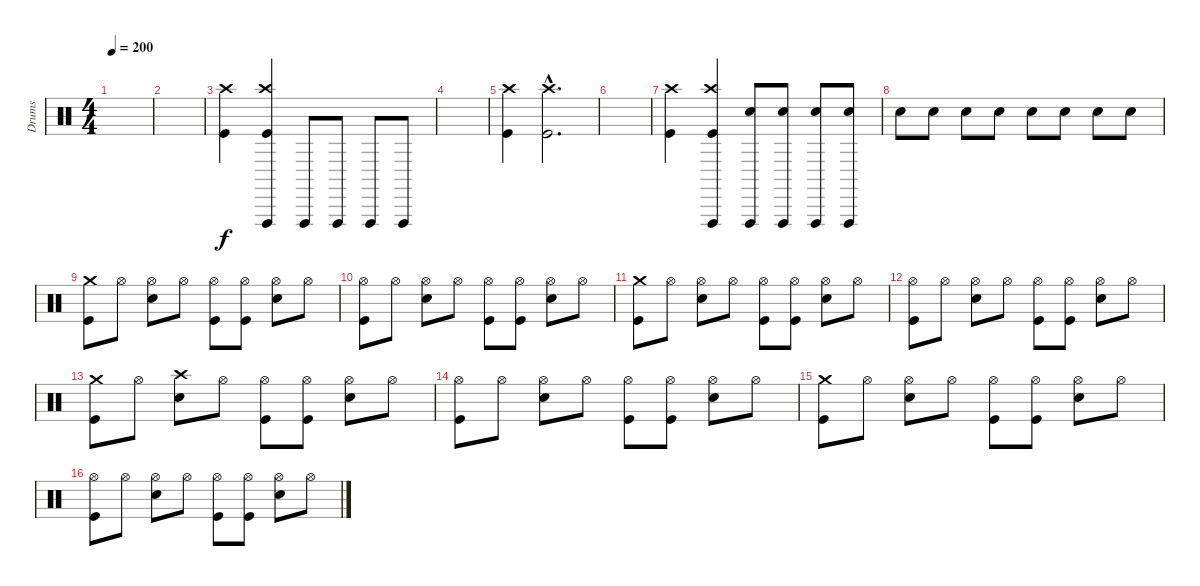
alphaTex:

\track ("Drums" "Drums") {instrument percussion}
\staff {score}
\articulation defaults
\ts (4 4)
\tempo 200
\clef neutral
\ks c
|
|
("Crash high (hit)" "Kick (hit)").4 ("Crash high (hit)" "Vibraslap (hit)" "Kick (hit)").4 "Vibraslap (hit)".8 "Vibraslap (hit)".8 "Vibraslap (hit)".8 "Vibraslap (hit)".8 |
|
("Crash high (hit)" "Kick (hit)").4 ("Crash high (hit)"{hac} "Kick (hit)"{hac}).2{d} |
|
("Crash high (hit)" "Kick (hit)").4 ("Crash high (hit)" "Vibraslap (hit)" "Kick (hit)").4 ("Vibraslap (hit)" "Snare (hit) 2").8 ("Vibraslap (hit)" "Snare (hit) 2").8 ("Vibraslap (hit)" "Snare (hit) 2").8 ("Vibraslap (hit)" "Snare (hit) 2").8 |
"Snare (hit) 2".8 "Snare (hit) 2".8 "Snare (hit) 2".8 "Snare (hit) 2".8 "Snare (hit) 2".8 "Snare (hit) 2".8 "Snare (hit) 2".8 "Snare (hit) 2".8 |
("Crash medium (hit)" "Kick (hit)").8 "Hi-Hat (open)".8 ("Hi-Hat (open)" "Snare (hit) 2").8 "Hi-Hat (open)".8 ("Hi-Hat (open)" "Kick (hit)").8 ("Hi-Hat (open)" "Kick (hit)").8 ("Hi-Hat (open)" "Snare (hit) 2").8 "Hi-Hat (open)".8 |
("Hi-Hat (open)" "Kick (hit)").8 "Hi-Hat (open)".8 ("Hi-Hat (open)" "Snare (hit) 2").8 "Hi-Hat (open)".8 ("Hi-Hat (open)" "Kick (hit)").8 ("Hi-Hat (open)" "Kick (hit)").8 ("Hi-Hat (open)" "Snare (hit) 2").8 "Hi-Hat (open)".8 |
("Crash medium (hit)" "Kick (hit)").8 "Hi-Hat (open)".8 ("Hi-Hat (open)" "Snare (hit) 2").8 "Hi-Hat (open)".8 ("Hi-Hat (open)" "Kick (hit)").8 ("Hi-Hat (open)" "Kick (hit)").8 ("Hi-Hat (open)" "Snare (hit) 2").8 "Hi-Hat (open)".8 |
("Hi-Hat (open)" "Kick (hit)").8 "Hi-Hat (open)".8 ("Hi-Hat (open)" "Snare (hit) 2").8 "Hi-Hat (open)".8 ("Hi-Hat (open)" "Kick (hit)").8 ("Hi-Hat (open)" "Kick (hit)").8 ("Hi-Hat (open)" "Snare (hit) 2").8 "Hi-Hat (open)".8 |
("Crash medium (hit)" "Kick (hit)").8 "Hi-Hat (open)".8 ("Crash high (hit)" "Snare (hit) 2").8 "Hi-Hat (open)".8 ("Hi-Hat (open)" "Kick (hit)").8 ("Hi-Hat (open)" "Kick (hit)").8 ("Hi-Hat (open)" "Snare (hit) 2").8 "Hi-Hat (open)".8 |
("Hi-Hat (open)" "Kick (hit)").8 "Hi-Hat (open)".8 ("Hi-Hat (open)" "Snare (hit) 2").8 "Hi-Hat (open)".8 ("Hi-Hat (open)" "Kick (hit)").8 ("Hi-Hat (open)" "Kick (hit)").8 ("Hi-Hat (open)" "Snare (hit) 2").8 "Hi-Hat (open)".8 |
("Crash medium (hit)" "Kick (hit)").8 "Hi-Hat (open)".8 ("Hi-Hat (open)" "Snare (hit) 2").8 "Hi-Hat (open)".8 ("Hi-Hat (open)" "Kick (hit)").8 ("Hi-Hat (open)" "Kick (hit)").8 ("Hi-Hat (open)" "Snare (hit) 2").8 "Hi-Hat (open)".8 |
("Hi-Hat (open)" "Kick (hit)").8 "Hi-Hat (open)".8 ("Hi-Hat (open)" "Snare (hit) 2").8 "Hi-Hat (open)".8 ("Hi-Hat (open)" "Kick (hit)").8 ("Hi-Hat (open)" "Kick (hit)").8 ("Hi-Hat (open)" "Snare (hit) 2").8 "Hi-Hat (open)".8
